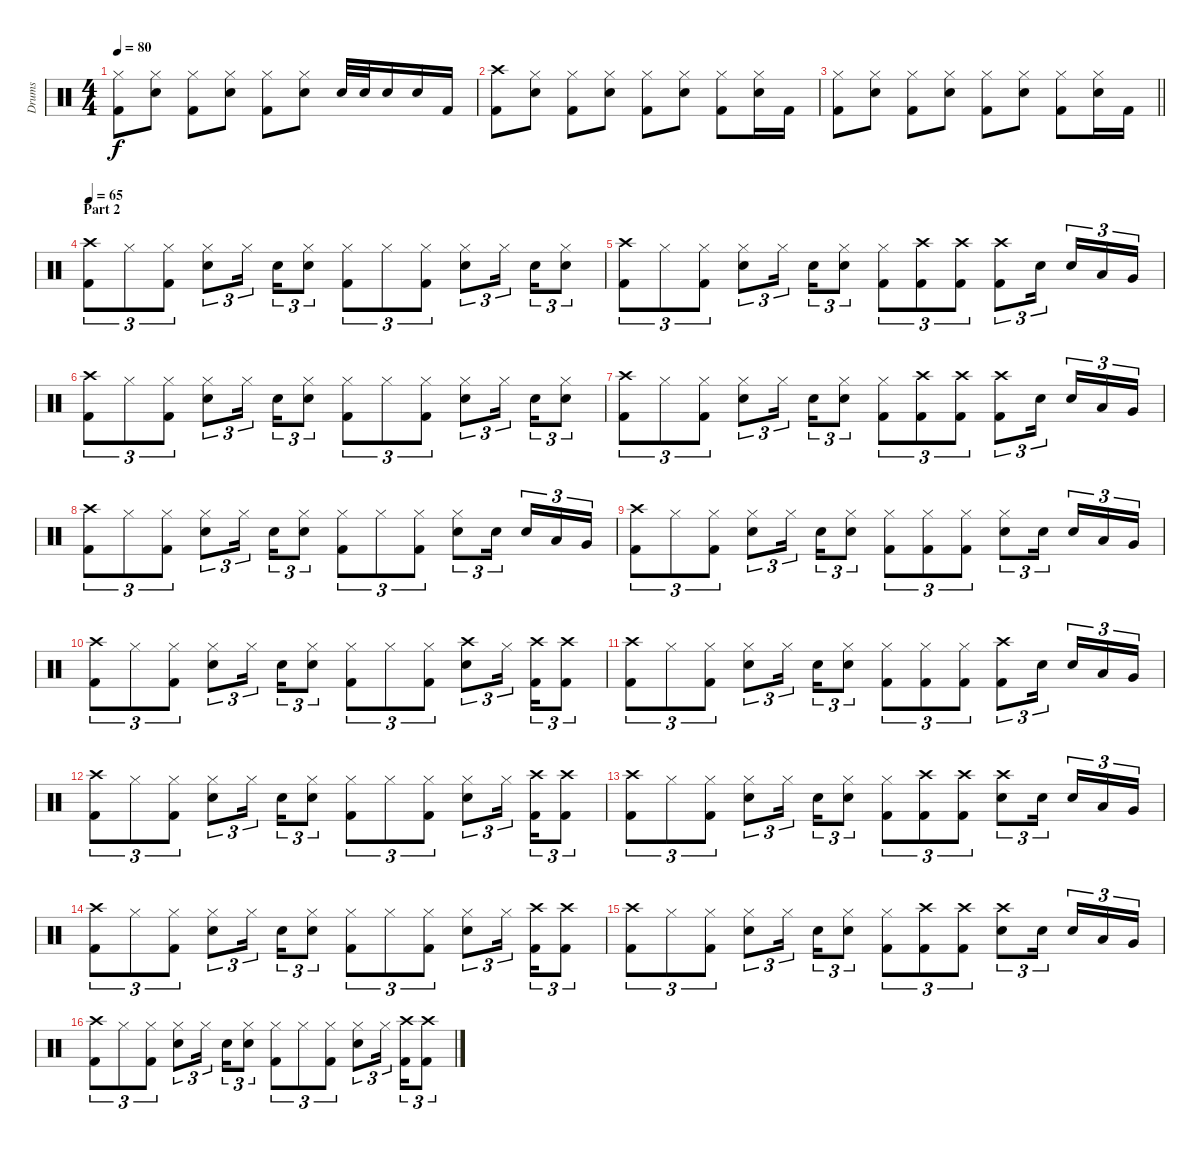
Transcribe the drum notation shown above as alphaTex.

\track ("Drums" "Drums") {instrument percussion}
\staff {score}
\articulation defaults
\ts (4 4)
\tempo 80
\clef neutral
\ks c
("Hi-Hat (closed)" "Kick (hit) 2").8{dy f} ("Hi-Hat (closed)" "Electric Snare (hit)").8 ("Hi-Hat (closed)" "Kick (hit) 2").8 ("Hi-Hat (closed)" "Electric Snare (hit)").8 ("Hi-Hat (closed)" "Kick (hit) 2").8 ("Hi-Hat (closed)" "Electric Snare (hit)").8 "Electric Snare (hit)".32 "Electric Snare (hit)".32 "Electric Snare (hit)".16 "Electric Snare (hit)".16 "Kick (hit) 2".16 |
("Crash high (hit)" "Kick (hit) 2").8 ("Hi-Hat (closed)" "Electric Snare (hit)").8 ("Hi-Hat (closed)" "Kick (hit) 2").8 ("Hi-Hat (closed)" "Electric Snare (hit)").8 ("Hi-Hat (closed)" "Kick (hit) 2").8 ("Hi-Hat (closed)" "Electric Snare (hit)").8 ("Hi-Hat (closed)" "Kick (hit) 2").8 ("Hi-Hat (closed)" "Electric Snare (hit)").16 "Kick (hit) 2".16 |
\barLineRight lightlight
("Hi-Hat (closed)" "Kick (hit) 2").8 ("Hi-Hat (closed)" "Electric Snare (hit)").8 ("Hi-Hat (closed)" "Kick (hit) 2").8 ("Hi-Hat (closed)" "Electric Snare (hit)").8 ("Hi-Hat (closed)" "Kick (hit) 2").8 ("Hi-Hat (closed)" "Electric Snare (hit)").8 ("Hi-Hat (closed)" "Kick (hit) 2").8 ("Hi-Hat (closed)" "Electric Snare (hit)").16 "Kick (hit) 2".16 |
\section ("" "Part 2")
\tempo 65
("Crash high (hit)" "Kick (hit) 2").8{tu (3 2)} "Hi-Hat (closed)".8{tu (3 2)} ("Hi-Hat (closed)" "Kick (hit) 2").8{tu (3 2)} ("Hi-Hat (closed)" "Electric Snare (hit)").8{tu (3 2)} "Hi-Hat (closed)".16{tu (3 2)} "Electric Snare (hit)".16{tu (3 2)} ("Hi-Hat (closed)" "Electric Snare (hit)").8{tu (3 2)} ("Hi-Hat (closed)" "Kick (hit) 2").8{tu (3 2)} "Hi-Hat (closed)".8{tu (3 2)} ("Hi-Hat (closed)" "Kick (hit) 2").8{tu (3 2)} ("Hi-Hat (closed)" "Electric Snare (hit)").8{tu (3 2)} "Hi-Hat (closed)".16{tu (3 2)} "Electric Snare (hit)".16{tu (3 2)} ("Hi-Hat (closed)" "Electric Snare (hit)").8{tu (3 2)} |
("Crash high (hit)" "Kick (hit) 2").8{tu (3 2)} "Hi-Hat (closed)".8{tu (3 2)} ("Hi-Hat (closed)" "Kick (hit) 2").8{tu (3 2)} ("Hi-Hat (closed)" "Electric Snare (hit)").8{tu (3 2)} "Hi-Hat (closed)".16{tu (3 2)} "Electric Snare (hit)".16{tu (3 2)} ("Hi-Hat (closed)" "Electric Snare (hit)").8{tu (3 2)} ("Hi-Hat (closed)" "Kick (hit) 2").8{tu (3 2)} ("Crash high (hit)" "Kick (hit) 2").8{tu (3 2)} ("Crash high (hit)" "Kick (hit) 2").8{tu (3 2)} ("Crash high (hit)" "Kick (hit) 2").8{tu (3 2)} "Electric Snare (hit)".16{tu (3 2)} "Electric Snare (hit)".16{tu (3 2)} "Low Tom (hit)".16{tu (3 2)} "Very Low Tom (hit)".16{tu (3 2)} |
("Crash high (hit)" "Kick (hit) 2").8{tu (3 2)} "Hi-Hat (closed)".8{tu (3 2)} ("Hi-Hat (closed)" "Kick (hit) 2").8{tu (3 2)} ("Hi-Hat (closed)" "Electric Snare (hit)").8{tu (3 2)} "Hi-Hat (closed)".16{tu (3 2)} "Electric Snare (hit)".16{tu (3 2)} ("Hi-Hat (closed)" "Electric Snare (hit)").8{tu (3 2)} ("Hi-Hat (closed)" "Kick (hit) 2").8{tu (3 2)} "Hi-Hat (closed)".8{tu (3 2)} ("Hi-Hat (closed)" "Kick (hit) 2").8{tu (3 2)} ("Hi-Hat (closed)" "Electric Snare (hit)").8{tu (3 2)} "Hi-Hat (closed)".16{tu (3 2)} "Electric Snare (hit)".16{tu (3 2)} ("Hi-Hat (closed)" "Electric Snare (hit)").8{tu (3 2)} |
("Crash high (hit)" "Kick (hit) 2").8{tu (3 2)} "Hi-Hat (closed)".8{tu (3 2)} ("Hi-Hat (closed)" "Kick (hit) 2").8{tu (3 2)} ("Hi-Hat (closed)" "Electric Snare (hit)").8{tu (3 2)} "Hi-Hat (closed)".16{tu (3 2)} "Electric Snare (hit)".16{tu (3 2)} ("Hi-Hat (closed)" "Electric Snare (hit)").8{tu (3 2)} ("Hi-Hat (closed)" "Kick (hit) 2").8{tu (3 2)} ("Crash high (hit)" "Kick (hit) 2").8{tu (3 2)} ("Crash high (hit)" "Kick (hit) 2").8{tu (3 2)} ("Crash high (hit)" "Kick (hit) 2").8{tu (3 2)} "Electric Snare (hit)".16{tu (3 2)} "Electric Snare (hit)".16{tu (3 2)} "Low Tom (hit)".16{tu (3 2)} "Very Low Tom (hit)".16{tu (3 2)} |
("Crash high (hit)" "Kick (hit) 2").8{tu (3 2)} "Hi-Hat (closed)".8{tu (3 2)} ("Hi-Hat (closed)" "Kick (hit) 2").8{tu (3 2)} ("Hi-Hat (closed)" "Electric Snare (hit)").8{tu (3 2)} "Hi-Hat (closed)".16{tu (3 2)} "Electric Snare (hit)".16{tu (3 2)} ("Hi-Hat (closed)" "Electric Snare (hit)").8{tu (3 2)} ("Hi-Hat (closed)" "Kick (hit) 2").8{tu (3 2)} "Hi-Hat (closed)".8{tu (3 2)} ("Hi-Hat (closed)" "Kick (hit) 2").8{tu (3 2)} ("Hi-Hat (closed)" "Electric Snare (hit)").8{tu (3 2)} "Electric Snare (hit)".16{tu (3 2)} "Electric Snare (hit)".16{tu (3 2)} "Low Tom (hit)".16{tu (3 2)} "Very Low Tom (hit)".16{tu (3 2)} |
("Crash high (hit)" "Kick (hit) 2").8{tu (3 2)} "Hi-Hat (closed)".8{tu (3 2)} ("Hi-Hat (closed)" "Kick (hit) 2").8{tu (3 2)} ("Hi-Hat (closed)" "Electric Snare (hit)").8{tu (3 2)} "Hi-Hat (closed)".16{tu (3 2)} "Electric Snare (hit)".16{tu (3 2)} ("Hi-Hat (closed)" "Electric Snare (hit)").8{tu (3 2)} ("Hi-Hat (closed)" "Kick (hit) 2").8{tu (3 2)} ("Hi-Hat (closed)" "Kick (hit) 2").8{tu (3 2)} ("Hi-Hat (closed)" "Kick (hit) 2").8{tu (3 2)} ("Hi-Hat (closed)" "Electric Snare (hit)").8{tu (3 2)} "Electric Snare (hit)".16{tu (3 2)} "Electric Snare (hit)".16{tu (3 2)} "Low Tom (hit)".16{tu (3 2)} "Very Low Tom (hit)".16{tu (3 2)} |
("Crash high (hit)" "Kick (hit) 2").8{tu (3 2)} "Hi-Hat (closed)".8{tu (3 2)} ("Hi-Hat (closed)" "Kick (hit) 2").8{tu (3 2)} ("Hi-Hat (closed)" "Electric Snare (hit)").8{tu (3 2)} "Hi-Hat (closed)".16{tu (3 2)} "Electric Snare (hit)".16{tu (3 2)} ("Hi-Hat (closed)" "Electric Snare (hit)").8{tu (3 2)} ("Hi-Hat (closed)" "Kick (hit) 2").8{tu (3 2)} "Hi-Hat (closed)".8{tu (3 2)} ("Hi-Hat (closed)" "Kick (hit) 2").8{tu (3 2)} ("Crash high (hit)" "Electric Snare (hit)").8{tu (3 2)} "Hi-Hat (closed)".16{tu (3 2)} ("Crash high (hit)" "Kick (hit) 2").16{tu (3 2)} ("Crash high (hit)" "Kick (hit) 2").8{tu (3 2)} |
("Crash high (hit)" "Kick (hit) 2").8{tu (3 2)} "Hi-Hat (closed)".8{tu (3 2)} ("Hi-Hat (closed)" "Kick (hit) 2").8{tu (3 2)} ("Hi-Hat (closed)" "Electric Snare (hit)").8{tu (3 2)} "Hi-Hat (closed)".16{tu (3 2)} "Electric Snare (hit)".16{tu (3 2)} ("Hi-Hat (closed)" "Electric Snare (hit)").8{tu (3 2)} ("Hi-Hat (closed)" "Kick (hit) 2").8{tu (3 2)} ("Hi-Hat (closed)" "Kick (hit) 2").8{tu (3 2)} ("Hi-Hat (closed)" "Kick (hit) 2").8{tu (3 2)} ("Crash high (hit)" "Kick (hit) 2").8{tu (3 2)} "Electric Snare (hit)".16{tu (3 2)} "Electric Snare (hit)".16{tu (3 2)} "Low Tom (hit)".16{tu (3 2)} "Very Low Tom (hit)".16{tu (3 2)} |
("Crash high (hit)" "Kick (hit) 2").8{tu (3 2)} "Hi-Hat (closed)".8{tu (3 2)} ("Hi-Hat (closed)" "Kick (hit) 2").8{tu (3 2)} ("Hi-Hat (closed)" "Electric Snare (hit)").8{tu (3 2)} "Hi-Hat (closed)".16{tu (3 2)} "Electric Snare (hit)".16{tu (3 2)} ("Hi-Hat (closed)" "Electric Snare (hit)").8{tu (3 2)} ("Hi-Hat (closed)" "Kick (hit) 2").8{tu (3 2)} "Hi-Hat (closed)".8{tu (3 2)} ("Hi-Hat (closed)" "Kick (hit) 2").8{tu (3 2)} ("Hi-Hat (closed)" "Electric Snare (hit)").8{tu (3 2)} "Hi-Hat (closed)".16{tu (3 2)} ("Crash high (hit)" "Kick (hit) 2").16{tu (3 2)} ("Crash high (hit)" "Kick (hit) 2").8{tu (3 2)} |
("Crash high (hit)" "Kick (hit) 2").8{tu (3 2)} "Hi-Hat (closed)".8{tu (3 2)} ("Hi-Hat (closed)" "Kick (hit) 2").8{tu (3 2)} ("Hi-Hat (closed)" "Electric Snare (hit)").8{tu (3 2)} "Hi-Hat (closed)".16{tu (3 2)} "Electric Snare (hit)".16{tu (3 2)} ("Hi-Hat (closed)" "Electric Snare (hit)").8{tu (3 2)} ("Hi-Hat (closed)" "Kick (hit) 2").8{tu (3 2)} ("Crash high (hit)" "Kick (hit) 2").8{tu (3 2)} ("Crash high (hit)" "Kick (hit) 2").8{tu (3 2)} ("Crash high (hit)" "Electric Snare (hit)").8{tu (3 2)} "Electric Snare (hit)".16{tu (3 2)} "Electric Snare (hit)".16{tu (3 2)} "Low Tom (hit)".16{tu (3 2)} "Very Low Tom (hit)".16{tu (3 2)} |
("Crash high (hit)" "Kick (hit) 2").8{tu (3 2)} "Hi-Hat (closed)".8{tu (3 2)} ("Hi-Hat (closed)" "Kick (hit) 2").8{tu (3 2)} ("Hi-Hat (closed)" "Electric Snare (hit)").8{tu (3 2)} "Hi-Hat (closed)".16{tu (3 2)} "Electric Snare (hit)".16{tu (3 2)} ("Hi-Hat (closed)" "Electric Snare (hit)").8{tu (3 2)} ("Hi-Hat (closed)" "Kick (hit) 2").8{tu (3 2)} "Hi-Hat (closed)".8{tu (3 2)} ("Hi-Hat (closed)" "Kick (hit) 2").8{tu (3 2)} ("Hi-Hat (closed)" "Electric Snare (hit)").8{tu (3 2)} "Hi-Hat (closed)".16{tu (3 2)} ("Crash high (hit)" "Kick (hit) 2").16{tu (3 2)} ("Crash high (hit)" "Kick (hit) 2").8{tu (3 2)} |
("Crash high (hit)" "Kick (hit) 2").8{tu (3 2)} "Hi-Hat (closed)".8{tu (3 2)} ("Hi-Hat (closed)" "Kick (hit) 2").8{tu (3 2)} ("Hi-Hat (closed)" "Electric Snare (hit)").8{tu (3 2)} "Hi-Hat (closed)".16{tu (3 2)} "Electric Snare (hit)".16{tu (3 2)} ("Hi-Hat (closed)" "Electric Snare (hit)").8{tu (3 2)} ("Hi-Hat (closed)" "Kick (hit) 2").8{tu (3 2)} ("Crash high (hit)" "Kick (hit) 2").8{tu (3 2)} ("Crash high (hit)" "Kick (hit) 2").8{tu (3 2)} ("Crash high (hit)" "Electric Snare (hit)").8{tu (3 2)} "Electric Snare (hit)".16{tu (3 2)} "Electric Snare (hit)".16{tu (3 2)} "Low Tom (hit)".16{tu (3 2)} "Very Low Tom (hit)".16{tu (3 2)} |
("Crash high (hit)" "Kick (hit) 2").8{tu (3 2)} "Hi-Hat (closed)".8{tu (3 2)} ("Hi-Hat (closed)" "Kick (hit) 2").8{tu (3 2)} ("Hi-Hat (closed)" "Electric Snare (hit)").8{tu (3 2)} "Hi-Hat (closed)".16{tu (3 2)} "Electric Snare (hit)".16{tu (3 2)} ("Hi-Hat (closed)" "Electric Snare (hit)").8{tu (3 2)} ("Hi-Hat (closed)" "Kick (hit) 2").8{tu (3 2)} "Hi-Hat (closed)".8{tu (3 2)} ("Hi-Hat (closed)" "Kick (hit) 2").8{tu (3 2)} ("Hi-Hat (closed)" "Electric Snare (hit)").8{tu (3 2)} "Hi-Hat (closed)".16{tu (3 2)} ("Crash high (hit)" "Kick (hit) 2").16{tu (3 2)} ("Crash high (hit)" "Kick (hit) 2").8{tu (3 2)}
